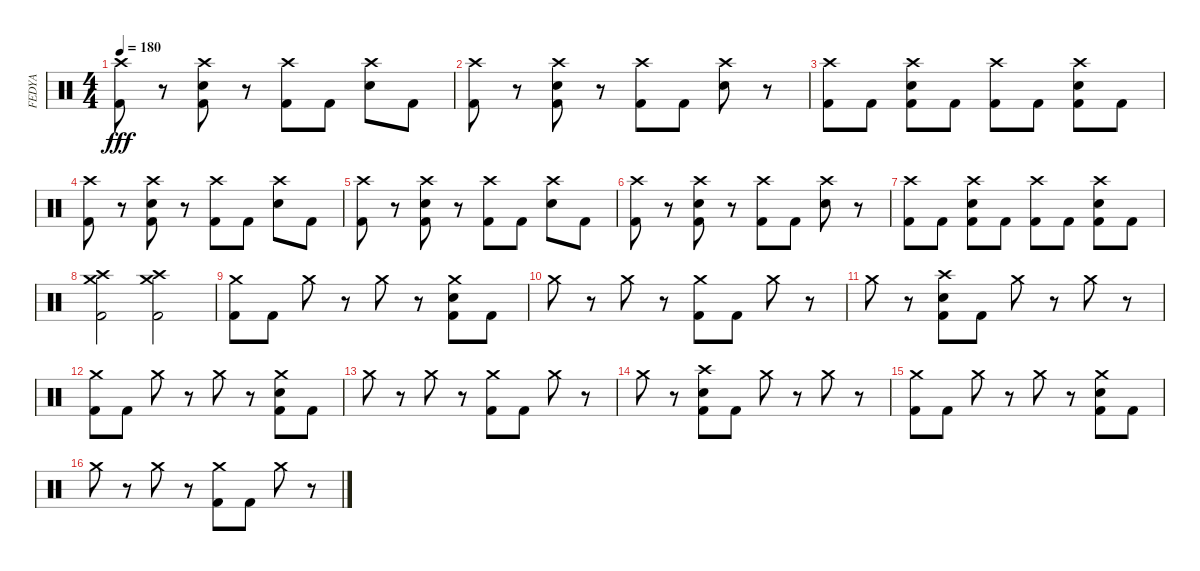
\track ("FEDYA" "FEDYA") {instrument percussion}
\staff {score}
\articulation defaults
\ts (4 4)
\tempo 180
\clef neutral
\ks c
("Crash high (hit)" "Kick (hit) 2").8{dy fff} r.8 ("Crash high (hit)" "Snare (hit) 2" "Kick (hit) 2").8 r.8 ("Crash high (hit)" "Kick (hit) 2").8 "Kick (hit) 2".8 ("Crash high (hit)" "Snare (hit) 2").8 "Kick (hit) 2".8 |
("Crash high (hit)" "Kick (hit) 2").8 r.8 ("Crash high (hit)" "Snare (hit) 2" "Kick (hit) 2").8 r.8 ("Crash high (hit)" "Kick (hit) 2").8 "Kick (hit) 2".8 ("Crash high (hit)" "Snare (hit) 2").8 r.8 |
("Crash high (hit)" "Kick (hit) 2").8 "Kick (hit) 2".8 ("Crash high (hit)" "Snare (hit) 2" "Kick (hit) 2").8 "Kick (hit) 2".8 ("Crash high (hit)" "Kick (hit) 2").8 "Kick (hit) 2".8 ("Crash high (hit)" "Snare (hit) 2" "Kick (hit) 2").8 "Kick (hit) 2".8 |
("Crash high (hit)" "Kick (hit) 2").8 r.8 ("Crash high (hit)" "Snare (hit) 2" "Kick (hit) 2").8 r.8 ("Crash high (hit)" "Kick (hit) 2").8 "Kick (hit) 2".8 ("Crash high (hit)" "Snare (hit) 2").8 "Kick (hit) 2".8 |
("Crash high (hit)" "Kick (hit) 2").8 r.8 ("Crash high (hit)" "Snare (hit) 2" "Kick (hit) 2").8 r.8 ("Crash high (hit)" "Kick (hit) 2").8 "Kick (hit) 2".8 ("Crash high (hit)" "Snare (hit) 2").8 "Kick (hit) 2".8 |
("Crash high (hit)" "Kick (hit) 2").8 r.8 ("Crash high (hit)" "Snare (hit) 2" "Kick (hit) 2").8 r.8 ("Crash high (hit)" "Kick (hit) 2").8 "Kick (hit) 2".8 ("Crash high (hit)" "Snare (hit) 2").8 r.8 |
("Crash high (hit)" "Kick (hit) 2").8 "Kick (hit) 2".8 ("Crash high (hit)" "Snare (hit) 2" "Kick (hit) 2").8 "Kick (hit) 2".8 ("Crash high (hit)" "Kick (hit) 2").8 "Kick (hit) 2".8 ("Crash high (hit)" "Snare (hit) 2" "Kick (hit) 2").8 "Kick (hit) 2".8 |
("Crash medium (hit)" "Crash high (hit)" "Kick (hit) 2").2 ("Crash medium (hit)" "Crash high (hit)" "Kick (hit) 2").2 |
("Crash medium (hit)" "Kick (hit) 2").8 "Kick (hit) 2".8 "Crash medium (hit)".8 r.8 "Crash medium (hit)".8 r.8 ("Crash medium (hit)" "Snare (hit) 2" "Kick (hit) 2").8 "Kick (hit) 2".8 |
"Crash medium (hit)".8 r.8 "Crash medium (hit)".8 r.8 ("Crash medium (hit)" "Kick (hit) 2").8 "Kick (hit) 2".8 "Crash medium (hit)".8 r.8 |
"Crash medium (hit)".8 r.8 ("Crash high (hit)" "Snare (hit) 2" "Kick (hit) 2").8 "Kick (hit) 2".8 "Crash medium (hit)".8 r.8 "Crash medium (hit)".8 r.8 |
("Crash medium (hit)" "Kick (hit) 2").8 "Kick (hit) 2".8 "Crash medium (hit)".8 r.8 "Crash medium (hit)".8 r.8 ("Crash medium (hit)" "Snare (hit) 2" "Kick (hit) 2").8 "Kick (hit) 2".8 |
"Crash medium (hit)".8 r.8 "Crash medium (hit)".8 r.8 ("Crash medium (hit)" "Kick (hit) 2").8 "Kick (hit) 2".8 "Crash medium (hit)".8 r.8 |
"Crash medium (hit)".8 r.8 ("Crash high (hit)" "Snare (hit) 2" "Kick (hit) 2").8 "Kick (hit) 2".8 "Crash medium (hit)".8 r.8 "Crash medium (hit)".8 r.8 |
("Crash medium (hit)" "Kick (hit) 2").8 "Kick (hit) 2".8 "Crash medium (hit)".8 r.8 "Crash medium (hit)".8 r.8 ("Crash medium (hit)" "Snare (hit) 2" "Kick (hit) 2").8 "Kick (hit) 2".8 |
"Crash medium (hit)".8 r.8 "Crash medium (hit)".8 r.8 ("Crash medium (hit)" "Kick (hit) 2").8 "Kick (hit) 2".8 "Crash medium (hit)".8 r.8
